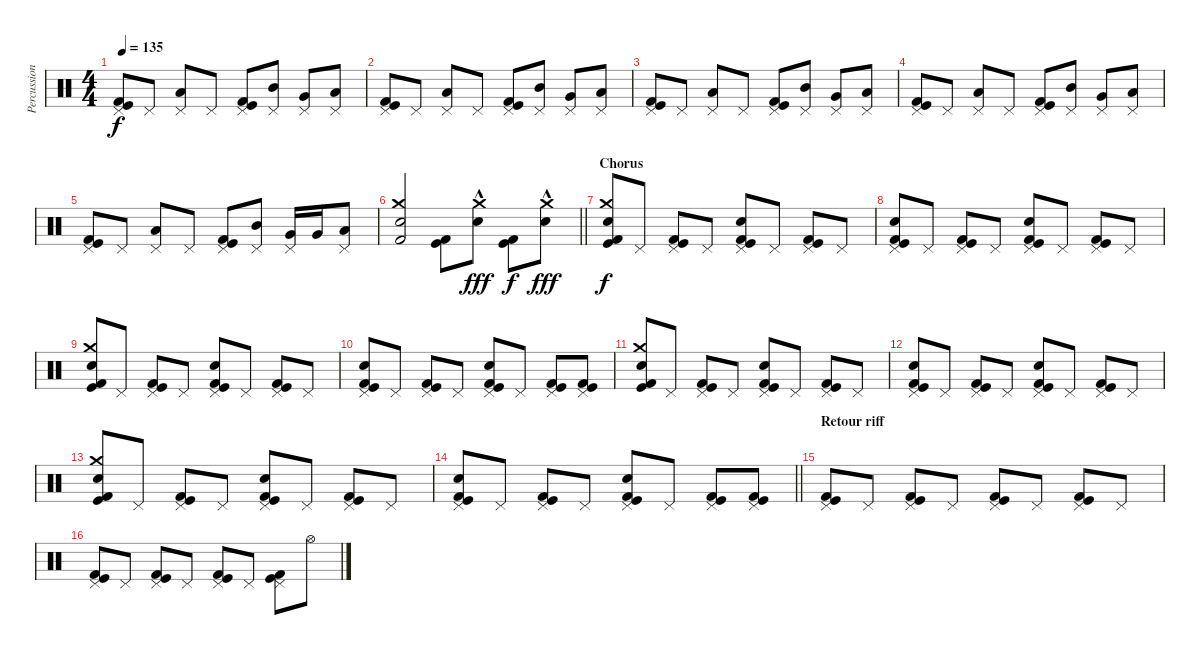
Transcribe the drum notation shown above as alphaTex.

\track ("Percussions" "Percussion") {instrument percussion}
\staff {score}
\articulation defaults
\ts (4 4)
\tempo 135
\clef neutral
\ks c
("Pedal Hi-Hat (hit)" "Kick (hit)" "Kick (hit) 2").8{dy f} "Pedal Hi-Hat (hit)".8 ("Pedal Hi-Hat (hit)" "Low Tom (hit)").8 "Pedal Hi-Hat (hit)".8 ("Pedal Hi-Hat (hit)" "Kick (hit)" "Kick (hit) 2").8 ("Pedal Hi-Hat (hit)" "Mid Tom (hit)").8 ("Pedal Hi-Hat (hit)" "Very Low Tom (hit)").8 ("Pedal Hi-Hat (hit)" "Low Floor Tom (hit)").8 |
("Pedal Hi-Hat (hit)" "Kick (hit)" "Kick (hit) 2").8 "Pedal Hi-Hat (hit)".8 ("Pedal Hi-Hat (hit)" "Low Tom (hit)").8 "Pedal Hi-Hat (hit)".8 ("Pedal Hi-Hat (hit)" "Kick (hit)" "Kick (hit) 2").8 ("Pedal Hi-Hat (hit)" "Mid Tom (hit)").8 ("Pedal Hi-Hat (hit)" "Very Low Tom (hit)").8 ("Pedal Hi-Hat (hit)" "Low Floor Tom (hit)").8 |
("Pedal Hi-Hat (hit)" "Kick (hit)" "Kick (hit) 2").8 "Pedal Hi-Hat (hit)".8 ("Pedal Hi-Hat (hit)" "Low Tom (hit)").8 "Pedal Hi-Hat (hit)".8 ("Pedal Hi-Hat (hit)" "Kick (hit)" "Kick (hit) 2").8 ("Pedal Hi-Hat (hit)" "Mid Tom (hit)").8 ("Pedal Hi-Hat (hit)" "Very Low Tom (hit)").8 ("Pedal Hi-Hat (hit)" "Low Floor Tom (hit)").8 |
("Pedal Hi-Hat (hit)" "Kick (hit)" "Kick (hit) 2").8 "Pedal Hi-Hat (hit)".8 ("Pedal Hi-Hat (hit)" "Low Tom (hit)").8 "Pedal Hi-Hat (hit)".8 ("Pedal Hi-Hat (hit)" "Kick (hit)" "Kick (hit) 2").8 ("Pedal Hi-Hat (hit)" "Mid Tom (hit)").8 ("Pedal Hi-Hat (hit)" "Very Low Tom (hit)").8 ("Pedal Hi-Hat (hit)" "Low Floor Tom (hit)").8 |
("Pedal Hi-Hat (hit)" "Kick (hit)" "Kick (hit) 2").8 "Pedal Hi-Hat (hit)".8 ("Pedal Hi-Hat (hit)" "Low Tom (hit)").8 "Pedal Hi-Hat (hit)".8 ("Pedal Hi-Hat (hit)" "Kick (hit)" "Kick (hit) 2").8 ("Pedal Hi-Hat (hit)" "Mid Tom (hit)").8 ("Pedal Hi-Hat (hit)" "Very Low Tom (hit)").16 "Very Low Tom (hit)".16 ("Pedal Hi-Hat (hit)" "Low Floor Tom (hit)").8 |
\barLineRight lightlight
("Crash medium (hit)" "Electric Snare (hit)" "Kick (hit) 2").2 ("Kick (hit)" "Kick (hit) 2").8 ("Crash medium (hit)" "Electric Snare (hit)"{hac}).8{dy fff} ("Kick (hit)" "Kick (hit) 2").8{dy f} ("Crash medium (hit)" "Electric Snare (hit)"{hac}).8{dy fff} |
\section ("" "Chorus")
("Crash medium (hit)" "Electric Snare (hit)" "Kick (hit)" "Kick (hit) 2").8{dy f} "Pedal Hi-Hat (hit)".8 ("Pedal Hi-Hat (hit)" "Kick (hit)" "Kick (hit) 2").8 "Pedal Hi-Hat (hit)".8 ("Pedal Hi-Hat (hit)" "Electric Snare (hit)" "Kick (hit)" "Kick (hit) 2").8 "Pedal Hi-Hat (hit)".8 ("Pedal Hi-Hat (hit)" "Kick (hit)" "Kick (hit) 2").8 "Pedal Hi-Hat (hit)".8 |
("Pedal Hi-Hat (hit)" "Electric Snare (hit)" "Kick (hit)" "Kick (hit) 2").8 "Pedal Hi-Hat (hit)".8 ("Pedal Hi-Hat (hit)" "Kick (hit)" "Kick (hit) 2").8 "Pedal Hi-Hat (hit)".8 ("Pedal Hi-Hat (hit)" "Electric Snare (hit)" "Kick (hit) 2" "Kick (hit)").8 "Pedal Hi-Hat (hit)".8 ("Pedal Hi-Hat (hit)" "Kick (hit)" "Kick (hit) 2").8 "Pedal Hi-Hat (hit)".8 |
("Crash medium (hit)" "Electric Snare (hit)" "Kick (hit)" "Kick (hit) 2").8 "Pedal Hi-Hat (hit)".8 ("Pedal Hi-Hat (hit)" "Kick (hit)" "Kick (hit) 2").8 "Pedal Hi-Hat (hit)".8 ("Pedal Hi-Hat (hit)" "Electric Snare (hit)" "Kick (hit)" "Kick (hit) 2").8 "Pedal Hi-Hat (hit)".8 ("Pedal Hi-Hat (hit)" "Kick (hit)" "Kick (hit) 2").8 "Pedal Hi-Hat (hit)".8 |
("Pedal Hi-Hat (hit)" "Electric Snare (hit)" "Kick (hit)" "Kick (hit) 2").8 "Pedal Hi-Hat (hit)".8 ("Pedal Hi-Hat (hit)" "Kick (hit)" "Kick (hit) 2").8 "Pedal Hi-Hat (hit)".8 ("Pedal Hi-Hat (hit)" "Electric Snare (hit)" "Kick (hit) 2" "Kick (hit)").8 "Pedal Hi-Hat (hit)".8 ("Pedal Hi-Hat (hit)" "Kick (hit)" "Kick (hit) 2").8 ("Pedal Hi-Hat (hit)" "Kick (hit)" "Kick (hit) 2").8 |
("Crash medium (hit)" "Electric Snare (hit)" "Kick (hit)" "Kick (hit) 2").8 "Pedal Hi-Hat (hit)".8 ("Pedal Hi-Hat (hit)" "Kick (hit)" "Kick (hit) 2").8 "Pedal Hi-Hat (hit)".8 ("Pedal Hi-Hat (hit)" "Electric Snare (hit)" "Kick (hit)" "Kick (hit) 2").8 "Pedal Hi-Hat (hit)".8 ("Pedal Hi-Hat (hit)" "Kick (hit)" "Kick (hit) 2").8 "Pedal Hi-Hat (hit)".8 |
("Pedal Hi-Hat (hit)" "Electric Snare (hit)" "Kick (hit)" "Kick (hit) 2").8 "Pedal Hi-Hat (hit)".8 ("Pedal Hi-Hat (hit)" "Kick (hit)" "Kick (hit) 2").8 "Pedal Hi-Hat (hit)".8 ("Pedal Hi-Hat (hit)" "Electric Snare (hit)" "Kick (hit) 2" "Kick (hit)").8 "Pedal Hi-Hat (hit)".8 ("Pedal Hi-Hat (hit)" "Kick (hit)" "Kick (hit) 2").8 "Pedal Hi-Hat (hit)".8 |
("Crash medium (hit)" "Electric Snare (hit)" "Kick (hit)" "Kick (hit) 2").8 "Pedal Hi-Hat (hit)".8 ("Pedal Hi-Hat (hit)" "Kick (hit)" "Kick (hit) 2").8 "Pedal Hi-Hat (hit)".8 ("Pedal Hi-Hat (hit)" "Electric Snare (hit)" "Kick (hit)" "Kick (hit) 2").8 "Pedal Hi-Hat (hit)".8 ("Pedal Hi-Hat (hit)" "Kick (hit)" "Kick (hit) 2").8 "Pedal Hi-Hat (hit)".8 |
\barLineRight lightlight
("Pedal Hi-Hat (hit)" "Electric Snare (hit)" "Kick (hit)" "Kick (hit) 2").8 "Pedal Hi-Hat (hit)".8 ("Pedal Hi-Hat (hit)" "Kick (hit)" "Kick (hit) 2").8 "Pedal Hi-Hat (hit)".8 ("Pedal Hi-Hat (hit)" "Electric Snare (hit)" "Kick (hit) 2" "Kick (hit)").8 "Pedal Hi-Hat (hit)".8 ("Pedal Hi-Hat (hit)" "Kick (hit)" "Kick (hit) 2").8 ("Pedal Hi-Hat (hit)" "Kick (hit)" "Kick (hit) 2").8 |
\section ("" "Retour riff")
("Pedal Hi-Hat (hit)" "Kick (hit)" "Kick (hit) 2").8 "Pedal Hi-Hat (hit)".8 ("Pedal Hi-Hat (hit)" "Kick (hit) 2" "Kick (hit)").8 "Pedal Hi-Hat (hit)".8 ("Pedal Hi-Hat (hit)" "Kick (hit)" "Kick (hit) 2").8 "Pedal Hi-Hat (hit)".8 ("Pedal Hi-Hat (hit)" "Kick (hit) 2" "Kick (hit)").8 "Pedal Hi-Hat (hit)".8 |
("Pedal Hi-Hat (hit)" "Kick (hit)" "Kick (hit) 2").8 "Pedal Hi-Hat (hit)".8 ("Pedal Hi-Hat (hit)" "Kick (hit) 2" "Kick (hit)").8 "Pedal Hi-Hat (hit)".8 ("Pedal Hi-Hat (hit)" "Kick (hit)" "Kick (hit) 2").8 "Pedal Hi-Hat (hit)".8 ("Pedal Hi-Hat (hit)" "Kick (hit) 2" "Kick (hit)").8 "Hi-Hat (open)".8
